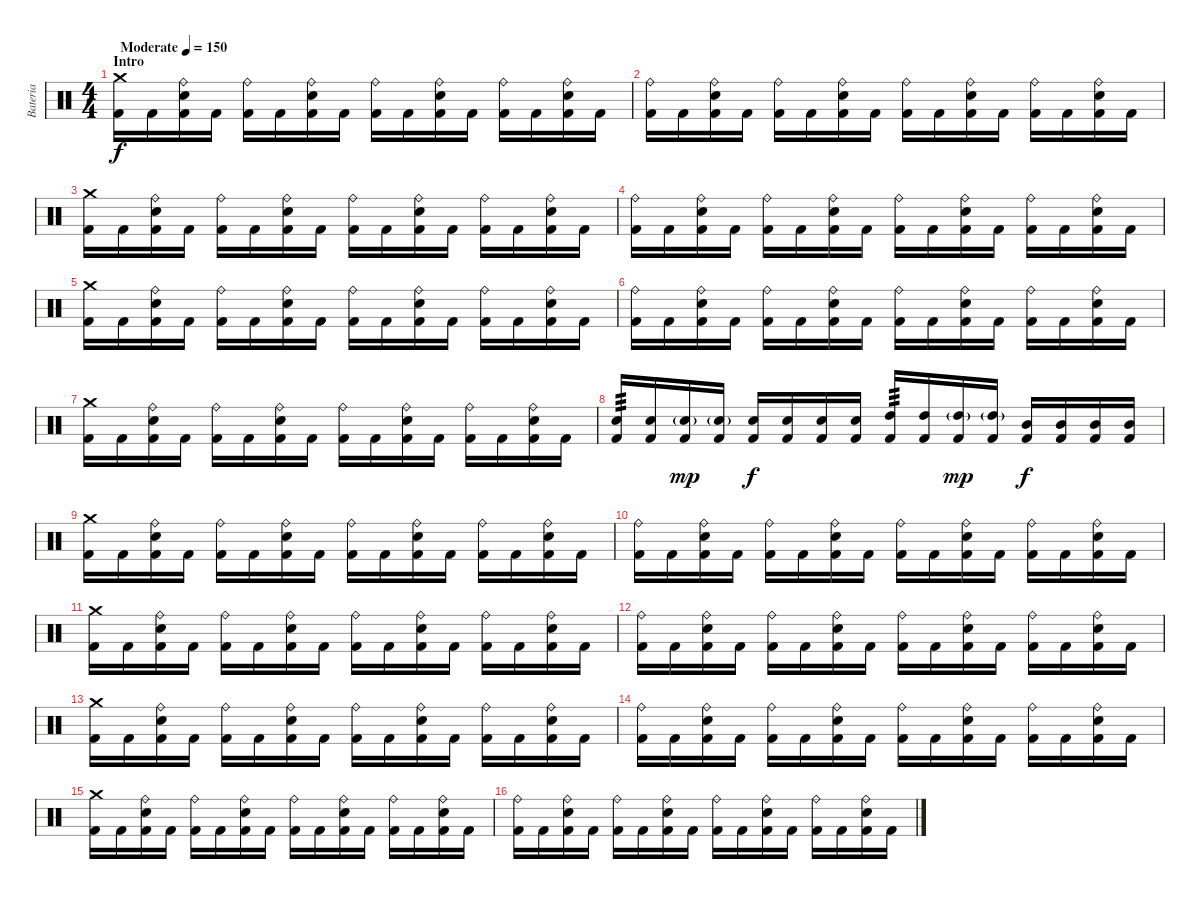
\track ("Bateria" "Bateria") {instrument percussion}
\staff {score}
\articulation defaults
\ts (4 4)
\section ("" "Intro")
\tempo (150 "Moderate")
\clef neutral
\ks c
("Crash medium (hit)" "Kick (hit) 2").16{dy f} "Kick (hit) 2".16 ("Ride (bell)" "Electric Snare (hit)" "Kick (hit) 2").16 "Kick (hit) 2".16 ("Ride (bell)" "Kick (hit) 2").16 "Kick (hit) 2".16 ("Ride (bell)" "Electric Snare (hit)" "Kick (hit) 2").16 "Kick (hit) 2".16 ("Ride (bell)" "Kick (hit) 2").16 "Kick (hit) 2".16 ("Ride (bell)" "Electric Snare (hit)" "Kick (hit) 2").16 "Kick (hit) 2".16 ("Ride (bell)" "Kick (hit) 2").16 "Kick (hit) 2".16 ("Ride (bell)" "Electric Snare (hit)" "Kick (hit) 2").16 "Kick (hit) 2".16 |
("Ride (bell)" "Kick (hit) 2").16 "Kick (hit) 2".16 ("Ride (bell)" "Electric Snare (hit)" "Kick (hit) 2").16 "Kick (hit) 2".16 ("Ride (bell)" "Kick (hit) 2").16 "Kick (hit) 2".16 ("Ride (bell)" "Electric Snare (hit)" "Kick (hit) 2").16 "Kick (hit) 2".16 ("Ride (bell)" "Kick (hit) 2").16 "Kick (hit) 2".16 ("Ride (bell)" "Electric Snare (hit)" "Kick (hit) 2").16 "Kick (hit) 2".16 ("Ride (bell)" "Kick (hit) 2").16 "Kick (hit) 2".16 ("Ride (bell)" "Electric Snare (hit)" "Kick (hit) 2").16 "Kick (hit) 2".16 |
("Crash medium (hit)" "Kick (hit) 2").16 "Kick (hit) 2".16 ("Ride (bell)" "Electric Snare (hit)" "Kick (hit) 2").16 "Kick (hit) 2".16 ("Ride (bell)" "Kick (hit) 2").16 "Kick (hit) 2".16 ("Ride (bell)" "Electric Snare (hit)" "Kick (hit) 2").16 "Kick (hit) 2".16 ("Ride (bell)" "Kick (hit) 2").16 "Kick (hit) 2".16 ("Ride (bell)" "Electric Snare (hit)" "Kick (hit) 2").16 "Kick (hit) 2".16 ("Ride (bell)" "Kick (hit) 2").16 "Kick (hit) 2".16 ("Ride (bell)" "Electric Snare (hit)" "Kick (hit) 2").16 "Kick (hit) 2".16 |
("Ride (bell)" "Kick (hit) 2").16 "Kick (hit) 2".16 ("Ride (bell)" "Electric Snare (hit)" "Kick (hit) 2").16 "Kick (hit) 2".16 ("Ride (bell)" "Kick (hit) 2").16 "Kick (hit) 2".16 ("Ride (bell)" "Electric Snare (hit)" "Kick (hit) 2").16 "Kick (hit) 2".16 ("Ride (bell)" "Kick (hit) 2").16 "Kick (hit) 2".16 ("Ride (bell)" "Electric Snare (hit)" "Kick (hit) 2").16 "Kick (hit) 2".16 ("Ride (bell)" "Kick (hit) 2").16 "Kick (hit) 2".16 ("Ride (bell)" "Electric Snare (hit)" "Kick (hit) 2").16 "Kick (hit) 2".16 |
("Crash medium (hit)" "Kick (hit) 2").16 "Kick (hit) 2".16 ("Ride (bell)" "Electric Snare (hit)" "Kick (hit) 2").16 "Kick (hit) 2".16 ("Ride (bell)" "Kick (hit) 2").16 "Kick (hit) 2".16 ("Ride (bell)" "Electric Snare (hit)" "Kick (hit) 2").16 "Kick (hit) 2".16 ("Ride (bell)" "Kick (hit) 2").16 "Kick (hit) 2".16 ("Ride (bell)" "Electric Snare (hit)" "Kick (hit) 2").16 "Kick (hit) 2".16 ("Ride (bell)" "Kick (hit) 2").16 "Kick (hit) 2".16 ("Ride (bell)" "Electric Snare (hit)" "Kick (hit) 2").16 "Kick (hit) 2".16 |
("Ride (bell)" "Kick (hit) 2").16 "Kick (hit) 2".16 ("Ride (bell)" "Electric Snare (hit)" "Kick (hit) 2").16 "Kick (hit) 2".16 ("Ride (bell)" "Kick (hit) 2").16 "Kick (hit) 2".16 ("Ride (bell)" "Electric Snare (hit)" "Kick (hit) 2").16 "Kick (hit) 2".16 ("Ride (bell)" "Kick (hit) 2").16 "Kick (hit) 2".16 ("Ride (bell)" "Electric Snare (hit)" "Kick (hit) 2").16 "Kick (hit) 2".16 ("Ride (bell)" "Kick (hit) 2").16 "Kick (hit) 2".16 ("Ride (bell)" "Electric Snare (hit)" "Kick (hit) 2").16 "Kick (hit) 2".16 |
("Crash medium (hit)" "Kick (hit) 2").16 "Kick (hit) 2".16 ("Ride (bell)" "Electric Snare (hit)" "Kick (hit) 2").16 "Kick (hit) 2".16 ("Ride (bell)" "Kick (hit) 2").16 "Kick (hit) 2".16 ("Ride (bell)" "Electric Snare (hit)" "Kick (hit) 2").16 "Kick (hit) 2".16 ("Ride (bell)" "Kick (hit) 2").16 "Kick (hit) 2".16 ("Ride (bell)" "Electric Snare (hit)" "Kick (hit) 2").16 "Kick (hit) 2".16 ("Ride (bell)" "Kick (hit) 2").16 "Kick (hit) 2".16 ("Ride (bell)" "Electric Snare (hit)" "Kick (hit) 2").16 "Kick (hit) 2".16 |
("Electric Snare (hit)" "Kick (hit) 2").16{tp 3} ("Electric Snare (hit)" "Kick (hit) 2").16 ("Electric Snare (hit)"{g} "Kick (hit) 2").16{dy mp} ("Electric Snare (hit)"{g} "Kick (hit) 2").16 ("Electric Snare (hit)" "Kick (hit) 2").16{dy f} ("Electric Snare (hit)" "Kick (hit) 2").16 ("Electric Snare (hit)" "Kick (hit) 2").16 ("Electric Snare (hit)" "Kick (hit) 2").16 ("High Tom (hit)" "Kick (hit) 2").16{tp 3} ("High Tom (hit)" "Kick (hit) 2").16 ("High Tom (hit)"{g} "Kick (hit) 2").16{dy mp} ("High Tom (hit)"{g} "Kick (hit) 2").16 ("Mid Tom (hit)" "Kick (hit) 2").16{dy f} ("Mid Tom (hit)" "Kick (hit) 2").16 ("Mid Tom (hit)" "Kick (hit) 2").16 ("Mid Tom (hit)" "Kick (hit) 2").16 |
("Crash medium (hit)" "Kick (hit) 2").16 "Kick (hit) 2".16 ("Ride (bell)" "Electric Snare (hit)" "Kick (hit) 2").16 "Kick (hit) 2".16 ("Ride (bell)" "Kick (hit) 2").16 "Kick (hit) 2".16 ("Ride (bell)" "Electric Snare (hit)" "Kick (hit) 2").16 "Kick (hit) 2".16 ("Ride (bell)" "Kick (hit) 2").16 "Kick (hit) 2".16 ("Ride (bell)" "Electric Snare (hit)" "Kick (hit) 2").16 "Kick (hit) 2".16 ("Ride (bell)" "Kick (hit) 2").16 "Kick (hit) 2".16 ("Ride (bell)" "Electric Snare (hit)" "Kick (hit) 2").16 "Kick (hit) 2".16 |
("Ride (bell)" "Kick (hit) 2").16 "Kick (hit) 2".16 ("Ride (bell)" "Electric Snare (hit)" "Kick (hit) 2").16 "Kick (hit) 2".16 ("Ride (bell)" "Kick (hit) 2").16 "Kick (hit) 2".16 ("Ride (bell)" "Electric Snare (hit)" "Kick (hit) 2").16 "Kick (hit) 2".16 ("Ride (bell)" "Kick (hit) 2").16 "Kick (hit) 2".16 ("Ride (bell)" "Electric Snare (hit)" "Kick (hit) 2").16 "Kick (hit) 2".16 ("Ride (bell)" "Kick (hit) 2").16 "Kick (hit) 2".16 ("Ride (bell)" "Electric Snare (hit)" "Kick (hit) 2").16 "Kick (hit) 2".16 |
("Crash medium (hit)" "Kick (hit) 2").16 "Kick (hit) 2".16 ("Ride (bell)" "Electric Snare (hit)" "Kick (hit) 2").16 "Kick (hit) 2".16 ("Ride (bell)" "Kick (hit) 2").16 "Kick (hit) 2".16 ("Ride (bell)" "Electric Snare (hit)" "Kick (hit) 2").16 "Kick (hit) 2".16 ("Ride (bell)" "Kick (hit) 2").16 "Kick (hit) 2".16 ("Ride (bell)" "Electric Snare (hit)" "Kick (hit) 2").16 "Kick (hit) 2".16 ("Ride (bell)" "Kick (hit) 2").16 "Kick (hit) 2".16 ("Ride (bell)" "Electric Snare (hit)" "Kick (hit) 2").16 "Kick (hit) 2".16 |
("Ride (bell)" "Kick (hit) 2").16 "Kick (hit) 2".16 ("Ride (bell)" "Electric Snare (hit)" "Kick (hit) 2").16 "Kick (hit) 2".16 ("Ride (bell)" "Kick (hit) 2").16 "Kick (hit) 2".16 ("Ride (bell)" "Electric Snare (hit)" "Kick (hit) 2").16 "Kick (hit) 2".16 ("Ride (bell)" "Kick (hit) 2").16 "Kick (hit) 2".16 ("Ride (bell)" "Electric Snare (hit)" "Kick (hit) 2").16 "Kick (hit) 2".16 ("Ride (bell)" "Kick (hit) 2").16 "Kick (hit) 2".16 ("Ride (bell)" "Electric Snare (hit)" "Kick (hit) 2").16 "Kick (hit) 2".16 |
("Crash medium (hit)" "Kick (hit) 2").16 "Kick (hit) 2".16 ("Ride (bell)" "Electric Snare (hit)" "Kick (hit) 2").16 "Kick (hit) 2".16 ("Ride (bell)" "Kick (hit) 2").16 "Kick (hit) 2".16 ("Ride (bell)" "Electric Snare (hit)" "Kick (hit) 2").16 "Kick (hit) 2".16 ("Ride (bell)" "Kick (hit) 2").16 "Kick (hit) 2".16 ("Ride (bell)" "Electric Snare (hit)" "Kick (hit) 2").16 "Kick (hit) 2".16 ("Ride (bell)" "Kick (hit) 2").16 "Kick (hit) 2".16 ("Ride (bell)" "Electric Snare (hit)" "Kick (hit) 2").16 "Kick (hit) 2".16 |
("Ride (bell)" "Kick (hit) 2").16 "Kick (hit) 2".16 ("Ride (bell)" "Electric Snare (hit)" "Kick (hit) 2").16 "Kick (hit) 2".16 ("Ride (bell)" "Kick (hit) 2").16 "Kick (hit) 2".16 ("Ride (bell)" "Electric Snare (hit)" "Kick (hit) 2").16 "Kick (hit) 2".16 ("Ride (bell)" "Kick (hit) 2").16 "Kick (hit) 2".16 ("Ride (bell)" "Electric Snare (hit)" "Kick (hit) 2").16 "Kick (hit) 2".16 ("Ride (bell)" "Kick (hit) 2").16 "Kick (hit) 2".16 ("Ride (bell)" "Electric Snare (hit)" "Kick (hit) 2").16 "Kick (hit) 2".16 |
("Crash medium (hit)" "Kick (hit) 2").16 "Kick (hit) 2".16 ("Ride (bell)" "Electric Snare (hit)" "Kick (hit) 2").16 "Kick (hit) 2".16 ("Ride (bell)" "Kick (hit) 2").16 "Kick (hit) 2".16 ("Ride (bell)" "Electric Snare (hit)" "Kick (hit) 2").16 "Kick (hit) 2".16 ("Ride (bell)" "Kick (hit) 2").16 "Kick (hit) 2".16 ("Ride (bell)" "Electric Snare (hit)" "Kick (hit) 2").16 "Kick (hit) 2".16 ("Ride (bell)" "Kick (hit) 2").16 "Kick (hit) 2".16 ("Ride (bell)" "Electric Snare (hit)" "Kick (hit) 2").16 "Kick (hit) 2".16 |
("Ride (bell)" "Kick (hit) 2").16 "Kick (hit) 2".16 ("Ride (bell)" "Electric Snare (hit)" "Kick (hit) 2").16 "Kick (hit) 2".16 ("Ride (bell)" "Kick (hit) 2").16 "Kick (hit) 2".16 ("Ride (bell)" "Electric Snare (hit)" "Kick (hit) 2").16 "Kick (hit) 2".16 ("Ride (bell)" "Kick (hit) 2").16 "Kick (hit) 2".16 ("Ride (bell)" "Electric Snare (hit)" "Kick (hit) 2").16 "Kick (hit) 2".16 ("Ride (bell)" "Kick (hit) 2").16 "Kick (hit) 2".16 ("Ride (bell)" "Electric Snare (hit)" "Kick (hit) 2").16 "Kick (hit) 2".16
